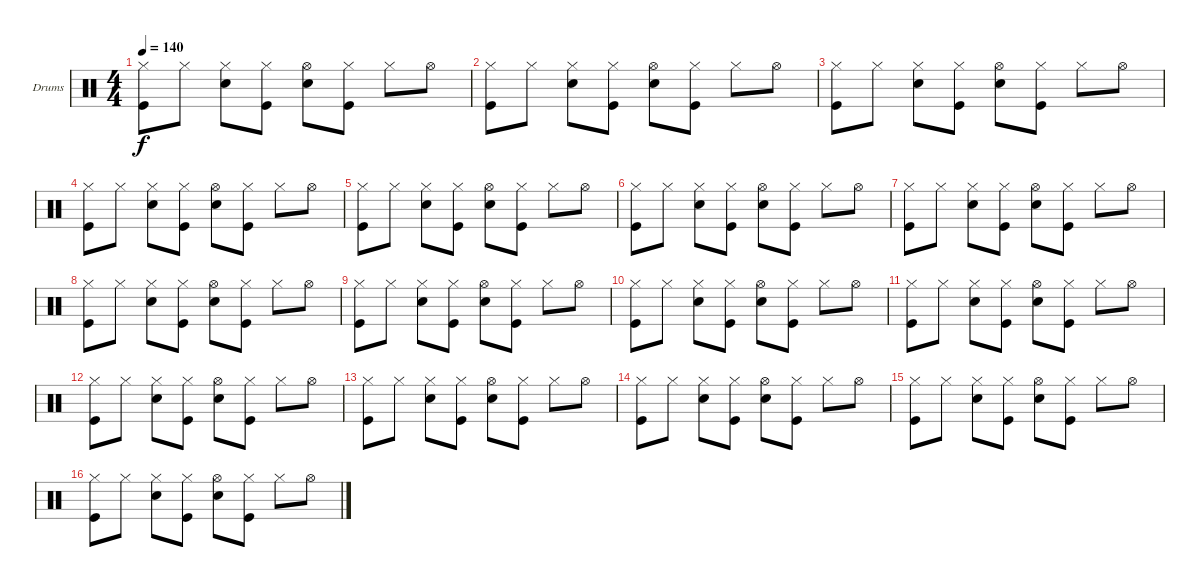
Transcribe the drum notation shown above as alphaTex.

\bracketExtendMode groupsimilarinstruments
\firstSystemTrackNameOrientation horizontal
\otherSystemsTrackNameOrientation horizontal
\track ("Drumkit" "Drums") {instrument percussion}
\staff {score}
\articulation defaults
\ts (4 4)
\tempo 140
\clef neutral
\ks c
("Hi-Hat (closed)" "Kick (hit)").8{dy f} "Hi-Hat (closed)".8 ("Hi-Hat (closed)" "Snare (hit) 2").8 ("Hi-Hat (closed)" "Kick (hit)").8 ("Hi-Hat (open)" "Snare (hit) 2").8 ("Hi-Hat (closed)" "Kick (hit)").8 "Hi-Hat (closed)".8 "Hi-Hat (open)".8 |
("Hi-Hat (closed)" "Kick (hit)").8 "Hi-Hat (closed)".8 ("Hi-Hat (closed)" "Snare (hit) 2").8 ("Hi-Hat (closed)" "Kick (hit)").8 ("Hi-Hat (open)" "Snare (hit) 2").8 ("Hi-Hat (closed)" "Kick (hit)").8 "Hi-Hat (closed)".8 "Hi-Hat (open)".8 |
("Hi-Hat (closed)" "Kick (hit)").8 "Hi-Hat (closed)".8 ("Hi-Hat (closed)" "Snare (hit) 2").8 ("Hi-Hat (closed)" "Kick (hit)").8 ("Hi-Hat (open)" "Snare (hit) 2").8 ("Hi-Hat (closed)" "Kick (hit)").8 "Hi-Hat (closed)".8 "Hi-Hat (open)".8 |
("Hi-Hat (closed)" "Kick (hit)").8 "Hi-Hat (closed)".8 ("Hi-Hat (closed)" "Snare (hit) 2").8 ("Hi-Hat (closed)" "Kick (hit)").8 ("Hi-Hat (open)" "Snare (hit) 2").8 ("Hi-Hat (closed)" "Kick (hit)").8 "Hi-Hat (closed)".8 "Hi-Hat (open)".8 |
("Hi-Hat (closed)" "Kick (hit)").8 "Hi-Hat (closed)".8 ("Hi-Hat (closed)" "Snare (hit) 2").8 ("Hi-Hat (closed)" "Kick (hit)").8 ("Hi-Hat (open)" "Snare (hit) 2").8 ("Hi-Hat (closed)" "Kick (hit)").8 "Hi-Hat (closed)".8 "Hi-Hat (open)".8 |
("Hi-Hat (closed)" "Kick (hit)").8 "Hi-Hat (closed)".8 ("Hi-Hat (closed)" "Snare (hit) 2").8 ("Hi-Hat (closed)" "Kick (hit)").8 ("Hi-Hat (open)" "Snare (hit) 2").8 ("Hi-Hat (closed)" "Kick (hit)").8 "Hi-Hat (closed)".8 "Hi-Hat (open)".8 |
("Hi-Hat (closed)" "Kick (hit)").8 "Hi-Hat (closed)".8 ("Hi-Hat (closed)" "Snare (hit) 2").8 ("Hi-Hat (closed)" "Kick (hit)").8 ("Hi-Hat (open)" "Snare (hit) 2").8 ("Hi-Hat (closed)" "Kick (hit)").8 "Hi-Hat (closed)".8 "Hi-Hat (open)".8 |
("Hi-Hat (closed)" "Kick (hit)").8 "Hi-Hat (closed)".8 ("Hi-Hat (closed)" "Snare (hit) 2").8 ("Hi-Hat (closed)" "Kick (hit)").8 ("Hi-Hat (open)" "Snare (hit) 2").8 ("Hi-Hat (closed)" "Kick (hit)").8 "Hi-Hat (closed)".8 "Hi-Hat (open)".8 |
("Hi-Hat (closed)" "Kick (hit)").8 "Hi-Hat (closed)".8 ("Hi-Hat (closed)" "Snare (hit) 2").8 ("Hi-Hat (closed)" "Kick (hit)").8 ("Hi-Hat (open)" "Snare (hit) 2").8 ("Hi-Hat (closed)" "Kick (hit)").8 "Hi-Hat (closed)".8 "Hi-Hat (open)".8 |
("Hi-Hat (closed)" "Kick (hit)").8 "Hi-Hat (closed)".8 ("Hi-Hat (closed)" "Snare (hit) 2").8 ("Hi-Hat (closed)" "Kick (hit)").8 ("Hi-Hat (open)" "Snare (hit) 2").8 ("Hi-Hat (closed)" "Kick (hit)").8 "Hi-Hat (closed)".8 "Hi-Hat (open)".8 |
("Hi-Hat (closed)" "Kick (hit)").8 "Hi-Hat (closed)".8 ("Hi-Hat (closed)" "Snare (hit) 2").8 ("Hi-Hat (closed)" "Kick (hit)").8 ("Hi-Hat (open)" "Snare (hit) 2").8 ("Hi-Hat (closed)" "Kick (hit)").8 "Hi-Hat (closed)".8 "Hi-Hat (open)".8 |
("Hi-Hat (closed)" "Kick (hit)").8 "Hi-Hat (closed)".8 ("Hi-Hat (closed)" "Snare (hit) 2").8 ("Hi-Hat (closed)" "Kick (hit)").8 ("Hi-Hat (open)" "Snare (hit) 2").8 ("Hi-Hat (closed)" "Kick (hit)").8 "Hi-Hat (closed)".8 "Hi-Hat (open)".8 |
("Hi-Hat (closed)" "Kick (hit)").8 "Hi-Hat (closed)".8 ("Hi-Hat (closed)" "Snare (hit) 2").8 ("Hi-Hat (closed)" "Kick (hit)").8 ("Hi-Hat (open)" "Snare (hit) 2").8 ("Hi-Hat (closed)" "Kick (hit)").8 "Hi-Hat (closed)".8 "Hi-Hat (open)".8 |
("Hi-Hat (closed)" "Kick (hit)").8 "Hi-Hat (closed)".8 ("Hi-Hat (closed)" "Snare (hit) 2").8 ("Hi-Hat (closed)" "Kick (hit)").8 ("Hi-Hat (open)" "Snare (hit) 2").8 ("Hi-Hat (closed)" "Kick (hit)").8 "Hi-Hat (closed)".8 "Hi-Hat (open)".8 |
("Hi-Hat (closed)" "Kick (hit)").8 "Hi-Hat (closed)".8 ("Hi-Hat (closed)" "Snare (hit) 2").8 ("Hi-Hat (closed)" "Kick (hit)").8 ("Hi-Hat (open)" "Snare (hit) 2").8 ("Hi-Hat (closed)" "Kick (hit)").8 "Hi-Hat (closed)".8 "Hi-Hat (open)".8 |
("Hi-Hat (closed)" "Kick (hit)").8 "Hi-Hat (closed)".8 ("Hi-Hat (closed)" "Snare (hit) 2").8 ("Hi-Hat (closed)" "Kick (hit)").8 ("Hi-Hat (open)" "Snare (hit) 2").8 ("Hi-Hat (closed)" "Kick (hit)").8 "Hi-Hat (closed)".8 "Hi-Hat (open)".8
